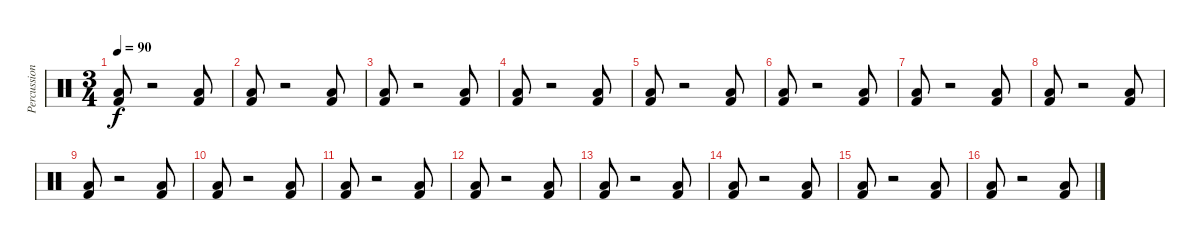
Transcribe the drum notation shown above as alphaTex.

\track ("Percussion" "Percussion") {instrument percussion}
\staff {score}
\articulation defaults
\ts (3 4)
\tempo 90
\clef neutral
\ks c
("Low Floor Tom (hit)" "Kick (hit) 2").8{dy f} r.2 ("Low Floor Tom (hit)" "Kick (hit) 2").8 |
("Low Floor Tom (hit)" "Kick (hit) 2").8 r.2 ("Low Floor Tom (hit)" "Kick (hit) 2").8 |
("Low Floor Tom (hit)" "Kick (hit) 2").8 r.2 ("Low Floor Tom (hit)" "Kick (hit) 2").8 |
("Low Floor Tom (hit)" "Kick (hit) 2").8 r.2 ("Low Floor Tom (hit)" "Kick (hit) 2").8 |
("Low Floor Tom (hit)" "Kick (hit) 2").8 r.2 ("Low Floor Tom (hit)" "Kick (hit) 2").8 |
("Low Floor Tom (hit)" "Kick (hit) 2").8 r.2 ("Low Floor Tom (hit)" "Kick (hit) 2").8 |
("Low Floor Tom (hit)" "Kick (hit) 2").8 r.2 ("Low Floor Tom (hit)" "Kick (hit) 2").8 |
("Low Floor Tom (hit)" "Kick (hit) 2").8 r.2 ("Low Floor Tom (hit)" "Kick (hit) 2").8 |
("Low Floor Tom (hit)" "Kick (hit) 2").8 r.2 ("Low Floor Tom (hit)" "Kick (hit) 2").8 |
("Low Floor Tom (hit)" "Kick (hit) 2").8 r.2 ("Low Floor Tom (hit)" "Kick (hit) 2").8 |
("Low Floor Tom (hit)" "Kick (hit) 2").8 r.2 ("Low Floor Tom (hit)" "Kick (hit) 2").8 |
("Low Floor Tom (hit)" "Kick (hit) 2").8 r.2 ("Low Floor Tom (hit)" "Kick (hit) 2").8 |
("Low Floor Tom (hit)" "Kick (hit) 2").8 r.2 ("Low Floor Tom (hit)" "Kick (hit) 2").8 |
("Low Floor Tom (hit)" "Kick (hit) 2").8 r.2 ("Low Floor Tom (hit)" "Kick (hit) 2").8 |
("Low Floor Tom (hit)" "Kick (hit) 2").8 r.2 ("Low Floor Tom (hit)" "Kick (hit) 2").8 |
("Low Floor Tom (hit)" "Kick (hit) 2").8 r.2 ("Low Floor Tom (hit)" "Kick (hit) 2").8
